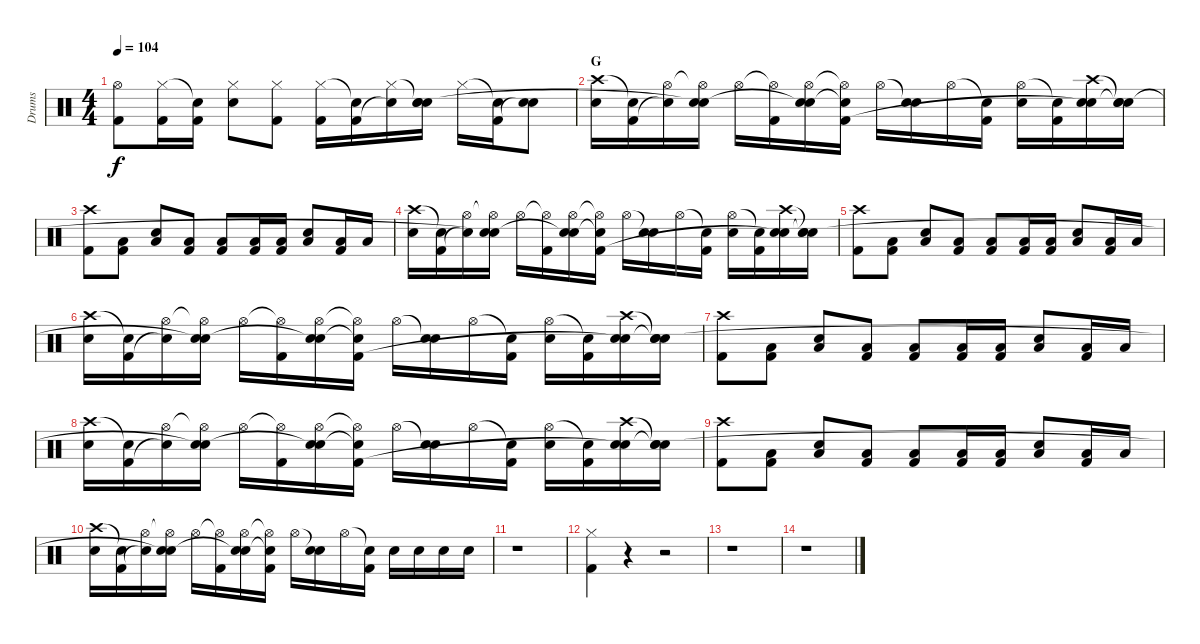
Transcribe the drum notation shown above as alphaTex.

\track ("Drums" "Drums") {instrument percussion}
\staff {score}
\articulation defaults
\ts (4 4)
\tempo 104
\clef neutral
\ks c
("Hi-Hat (open)" "Kick (hit) 2").8{dy f} ("Hi-Hat (closed)" "Kick (hit) 2").16 ("Snare (hit)"{t} "Kick (hit) 2").16 ("Hi-Hat (closed)" "Snare (hit) 2").8 ("Hi-Hat (closed)" "Kick (hit) 2").8 ("Hi-Hat (closed)" "Kick (hit) 2").16 ("Snare (hit)"{t} "Kick (hit) 2").16 ("Hi-Hat (closed)" "Snare (hit)"{t}).16 ("Snare (hit)"{t} "Snare (hit) 2" "Snare (hit)"{t}).16 "Hi-Hat (closed)".16 ("Snare (hit)"{t} "Kick (hit) 2").16 ("Snare (hit) 2" "Snare (hit)"{t}).8 |
\section ("" "G")
("Crash high (hit)" "Snare (hit) 2").16 ("Snare (hit)"{t} "Kick (hit) 2").16 ("Hi-Hat (open)" "Snare (hit)"{t}).16 ("Hi-Hat (open)"{t} "Snare (hit) 2" "Snare (hit)"{t}).16 "Hi-Hat (open)".16 ("Hi-Hat (open)"{t} "Kick (hit) 2").16 ("Hi-Hat (open)" "Snare (hit) 2" "Snare (hit)"{t}).16 ("Hi-Hat (open)"{t} "Snare (hit)"{t} "Kick (hit) 2").16 "Hi-Hat (open)".16 ("Snare (hit)"{t} "Snare (hit) 2").16 "Hi-Hat (open)".16 ("Snare (hit)"{t} "Kick (hit) 2").16 ("Hi-Hat (open)" "Snare (hit) 2").16 ("Snare (hit)"{t} "Kick (hit) 2").16 ("Crash high (hit)" "Snare (hit) 2" "Snare (hit)"{t}).16 ("Snare (hit)"{t} "Snare (hit) 2" "Snare (hit)"{t}).16 |
("Crash high (hit)" "Kick (hit) 2").8 ("Low Tom (hit)" "Kick (hit) 2").8 ("Low Tom (hit)" "Snare (hit) 2").8 ("Low Tom (hit)" "Kick (hit) 2").8 ("Low Tom (hit)" "Kick (hit) 2").8 ("Low Tom (hit)" "Kick (hit) 2").16 ("Low Tom (hit)" "Kick (hit) 2").16 ("Low Tom (hit)" "Snare (hit) 2").8 ("Low Tom (hit)" "Kick (hit) 2").16 "Low Tom (hit)".16 |
("Crash high (hit)" "Snare (hit) 2").16 ("Snare (hit)"{t} "Kick (hit) 2").16 ("Hi-Hat (open)" "Snare (hit)"{t}).16 ("Hi-Hat (open)"{t} "Snare (hit) 2" "Snare (hit)"{t}).16 "Hi-Hat (open)".16 ("Hi-Hat (open)"{t} "Kick (hit) 2").16 ("Hi-Hat (open)" "Snare (hit) 2" "Snare (hit)"{t}).16 ("Hi-Hat (open)"{t} "Snare (hit)"{t} "Kick (hit) 2").16 "Hi-Hat (open)".16 ("Snare (hit)"{t} "Snare (hit) 2").16 "Hi-Hat (open)".16 ("Snare (hit)"{t} "Kick (hit) 2").16 ("Hi-Hat (open)" "Snare (hit) 2").16 ("Snare (hit)"{t} "Kick (hit) 2").16 ("Crash high (hit)" "Snare (hit) 2" "Snare (hit)"{t}).16 ("Snare (hit)"{t} "Snare (hit) 2" "Snare (hit)"{t}).16 |
("Crash high (hit)" "Kick (hit) 2").8 ("Low Tom (hit)" "Kick (hit) 2").8 ("Low Tom (hit)" "Snare (hit) 2").8 ("Low Tom (hit)" "Kick (hit) 2").8 ("Low Tom (hit)" "Kick (hit) 2").8 ("Low Tom (hit)" "Kick (hit) 2").16 ("Low Tom (hit)" "Kick (hit) 2").16 ("Low Tom (hit)" "Snare (hit) 2").8 ("Low Tom (hit)" "Kick (hit) 2").16 "Low Tom (hit)".16 |
("Crash high (hit)" "Snare (hit) 2").16 ("Snare (hit)"{t} "Kick (hit) 2").16 ("Hi-Hat (open)" "Snare (hit)"{t}).16 ("Hi-Hat (open)"{t} "Snare (hit) 2" "Snare (hit)"{t}).16 "Hi-Hat (open)".16 ("Hi-Hat (open)"{t} "Kick (hit) 2").16 ("Hi-Hat (open)" "Snare (hit) 2" "Snare (hit)"{t}).16 ("Hi-Hat (open)"{t} "Snare (hit)"{t} "Kick (hit) 2").16 "Hi-Hat (open)".16 ("Snare (hit)"{t} "Snare (hit) 2").16 "Hi-Hat (open)".16 ("Snare (hit)"{t} "Kick (hit) 2").16 ("Hi-Hat (open)" "Snare (hit) 2").16 ("Snare (hit)"{t} "Kick (hit) 2").16 ("Crash high (hit)" "Snare (hit) 2" "Snare (hit)"{t}).16 ("Snare (hit)"{t} "Snare (hit) 2" "Snare (hit)"{t}).16 |
("Crash high (hit)" "Kick (hit) 2").8 ("Low Tom (hit)" "Kick (hit) 2").8 ("Low Tom (hit)" "Snare (hit) 2").8 ("Low Tom (hit)" "Kick (hit) 2").8 ("Low Tom (hit)" "Kick (hit) 2").8 ("Low Tom (hit)" "Kick (hit) 2").16 ("Low Tom (hit)" "Kick (hit) 2").16 ("Low Tom (hit)" "Snare (hit) 2").8 ("Low Tom (hit)" "Kick (hit) 2").16 "Low Tom (hit)".16 |
("Crash high (hit)" "Snare (hit) 2").16 ("Snare (hit)"{t} "Kick (hit) 2").16 ("Hi-Hat (open)" "Snare (hit)"{t}).16 ("Hi-Hat (open)"{t} "Snare (hit) 2" "Snare (hit)"{t}).16 "Hi-Hat (open)".16 ("Hi-Hat (open)"{t} "Kick (hit) 2").16 ("Hi-Hat (open)" "Snare (hit) 2" "Snare (hit)"{t}).16 ("Hi-Hat (open)"{t} "Snare (hit)"{t} "Kick (hit) 2").16 "Hi-Hat (open)".16 ("Snare (hit)"{t} "Snare (hit) 2").16 "Hi-Hat (open)".16 ("Snare (hit)"{t} "Kick (hit) 2").16 ("Hi-Hat (open)" "Snare (hit) 2").16 ("Snare (hit)"{t} "Kick (hit) 2").16 ("Crash high (hit)" "Snare (hit) 2" "Snare (hit)"{t}).16 ("Snare (hit)"{t} "Snare (hit) 2" "Snare (hit)"{t}).16 |
("Crash high (hit)" "Kick (hit) 2").8 ("Low Tom (hit)" "Kick (hit) 2").8 ("Low Tom (hit)" "Snare (hit) 2").8 ("Low Tom (hit)" "Kick (hit) 2").8 ("Low Tom (hit)" "Kick (hit) 2").8 ("Low Tom (hit)" "Kick (hit) 2").16 ("Low Tom (hit)" "Kick (hit) 2").16 ("Low Tom (hit)" "Snare (hit) 2").8 ("Low Tom (hit)" "Kick (hit) 2").16 "Low Tom (hit)".16 |
("Crash high (hit)" "Snare (hit) 2").16 ("Snare (hit)"{t} "Kick (hit) 2").16 ("Hi-Hat (open)" "Snare (hit)"{t}).16 ("Hi-Hat (open)"{t} "Snare (hit) 2" "Snare (hit)"{t}).16 "Hi-Hat (open)".16 ("Hi-Hat (open)"{t} "Kick (hit) 2").16 ("Hi-Hat (open)" "Snare (hit) 2" "Snare (hit)"{t}).16 ("Hi-Hat (open)"{t} "Snare (hit)"{t} "Kick (hit) 2").16 "Hi-Hat (open)".16 ("Snare (hit)"{t} "Snare (hit) 2").16 "Hi-Hat (open)".16 ("Snare (hit)"{t} "Kick (hit) 2").16 "Snare (hit) 2".16 "Snare (hit) 2".16 "Snare (hit) 2".16 "Snare (hit) 2".16 |
r.1 |
("Hi-Hat (closed)" "Kick (hit) 2").4 r.4 r.2 |
r.1 |
r.1
